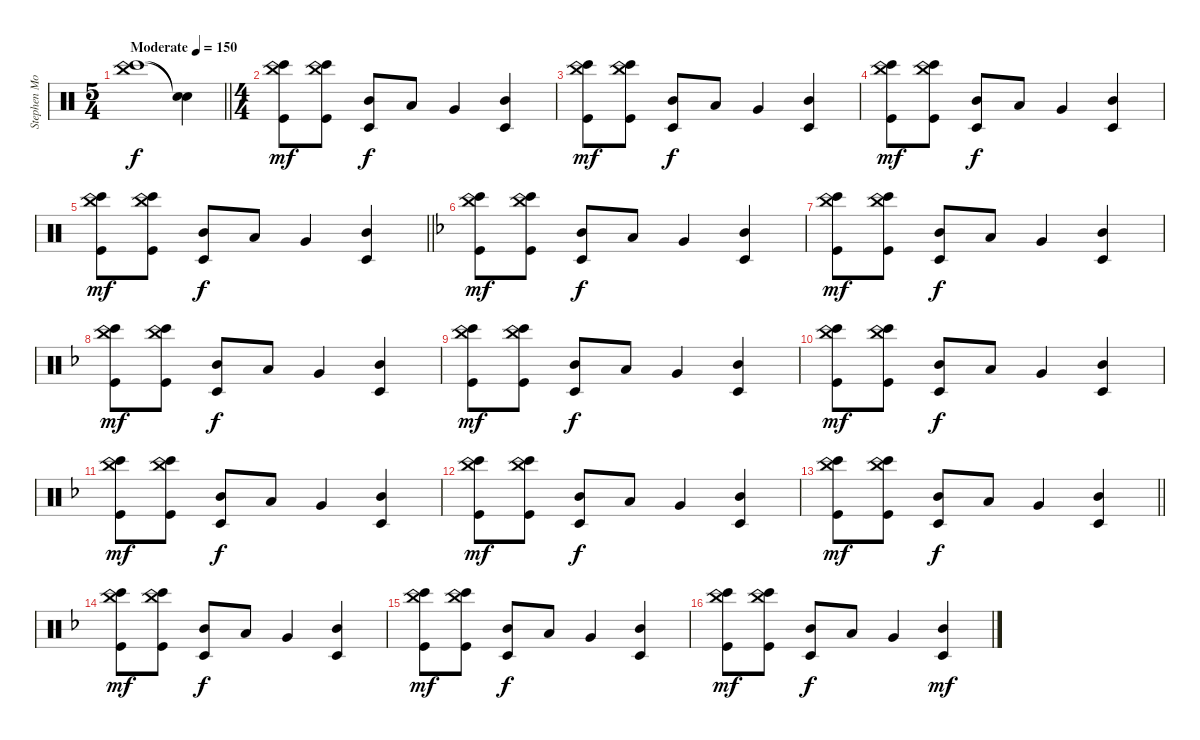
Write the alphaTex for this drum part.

\track ("Stephen Morris (Drums)" "Stephen Mo") {instrument percussion}
\staff {score}
\articulation defaults
\ts (5 4)
\tempo (150 "Moderate")
\clef neutral
\barLineRight lightlight
\ks c
("China (hit)" "Bongo High (hit)").1{dy f} ("Snare (hit)"{t} "Snare (hit)"{t}).4 |
\ts (4 4)
("China (hit)" "Bongo High (hit)" "Kick (hit)").8{dy mf} ("China (hit)" "Bongo High (hit)" "Kick (hit)").8 ("Mid Tom (hit)" "Timbale low (hit)").8{dy f} "Low Tom (hit)".8 "Very Low Tom (hit)".4 ("Mid Tom (hit)" "Timbale low (hit)").4 |
("China (hit)" "Bongo High (hit)" "Kick (hit)").8{dy mf} ("China (hit)" "Bongo High (hit)" "Kick (hit)").8 ("Mid Tom (hit)" "Timbale low (hit)").8{dy f} "Low Tom (hit)".8 "Very Low Tom (hit)".4 ("Mid Tom (hit)" "Timbale low (hit)").4 |
("China (hit)" "Bongo High (hit)" "Kick (hit)").8{dy mf} ("China (hit)" "Bongo High (hit)" "Kick (hit)").8 ("Mid Tom (hit)" "Timbale low (hit)").8{dy f} "Low Tom (hit)".8 "Very Low Tom (hit)".4 ("Mid Tom (hit)" "Timbale low (hit)").4 |
\barLineRight lightlight
("China (hit)" "Bongo High (hit)" "Kick (hit)").8{dy mf} ("China (hit)" "Bongo High (hit)" "Kick (hit)").8 ("Mid Tom (hit)" "Timbale low (hit)").8{dy f} "Low Tom (hit)".8 "Very Low Tom (hit)".4 ("Mid Tom (hit)" "Timbale low (hit)").4 |
\ks f
("China (hit)" "Bongo High (hit)" "Kick (hit)").8{dy mf} ("China (hit)" "Bongo High (hit)" "Kick (hit)").8 ("Mid Tom (hit)" "Timbale low (hit)").8{dy f} "Low Tom (hit)".8 "Very Low Tom (hit)".4 ("Mid Tom (hit)" "Timbale low (hit)").4 |
("China (hit)" "Bongo High (hit)" "Kick (hit)").8{dy mf} ("China (hit)" "Bongo High (hit)" "Kick (hit)").8 ("Mid Tom (hit)" "Timbale low (hit)").8{dy f} "Low Tom (hit)".8 "Very Low Tom (hit)".4 ("Mid Tom (hit)" "Timbale low (hit)").4 |
("China (hit)" "Bongo High (hit)" "Kick (hit)").8{dy mf} ("China (hit)" "Bongo High (hit)" "Kick (hit)").8 ("Mid Tom (hit)" "Timbale low (hit)").8{dy f} "Low Tom (hit)".8 "Very Low Tom (hit)".4 ("Mid Tom (hit)" "Timbale low (hit)").4 |
("China (hit)" "Bongo High (hit)" "Kick (hit)").8{dy mf} ("China (hit)" "Bongo High (hit)" "Kick (hit)").8 ("Mid Tom (hit)" "Timbale low (hit)").8{dy f} "Low Tom (hit)".8 "Very Low Tom (hit)".4 ("Mid Tom (hit)" "Timbale low (hit)").4 |
("China (hit)" "Bongo High (hit)" "Kick (hit)").8{dy mf} ("China (hit)" "Bongo High (hit)" "Kick (hit)").8 ("Mid Tom (hit)" "Timbale low (hit)").8{dy f} "Low Tom (hit)".8 "Very Low Tom (hit)".4 ("Mid Tom (hit)" "Timbale low (hit)").4 |
("China (hit)" "Bongo High (hit)" "Kick (hit)").8{dy mf} ("China (hit)" "Bongo High (hit)" "Kick (hit)").8 ("Mid Tom (hit)" "Timbale low (hit)").8{dy f} "Low Tom (hit)".8 "Very Low Tom (hit)".4 ("Mid Tom (hit)" "Timbale low (hit)").4 |
("China (hit)" "Bongo High (hit)" "Kick (hit)").8{dy mf} ("China (hit)" "Bongo High (hit)" "Kick (hit)").8 ("Mid Tom (hit)" "Timbale low (hit)").8{dy f} "Low Tom (hit)".8 "Very Low Tom (hit)".4 ("Mid Tom (hit)" "Timbale low (hit)").4 |
\barLineRight lightlight
("China (hit)" "Bongo High (hit)" "Kick (hit)").8{dy mf} ("China (hit)" "Bongo High (hit)" "Kick (hit)").8 ("Mid Tom (hit)" "Timbale low (hit)").8{dy f} "Low Tom (hit)".8 "Very Low Tom (hit)".4 ("Mid Tom (hit)" "Timbale low (hit)").4 |
("China (hit)" "Bongo High (hit)" "Kick (hit)").8{dy mf} ("China (hit)" "Bongo High (hit)" "Kick (hit)").8 ("Mid Tom (hit)" "Timbale low (hit)").8{dy f} "Low Tom (hit)".8 "Very Low Tom (hit)".4 ("Mid Tom (hit)" "Timbale low (hit)").4 |
("China (hit)" "Bongo High (hit)" "Kick (hit)").8{dy mf} ("China (hit)" "Bongo High (hit)" "Kick (hit)").8 ("Mid Tom (hit)" "Timbale low (hit)").8{dy f} "Low Tom (hit)".8 "Very Low Tom (hit)".4 ("Mid Tom (hit)" "Timbale low (hit)").4 |
("China (hit)" "Bongo High (hit)" "Kick (hit)").8{dy mf} ("China (hit)" "Bongo High (hit)" "Kick (hit)").8 ("Mid Tom (hit)" "Timbale low (hit)").8{dy f} "Low Tom (hit)".8 "Very Low Tom (hit)".4 ("Mid Tom (hit)" "Timbale low (hit)").4{dy mf}
